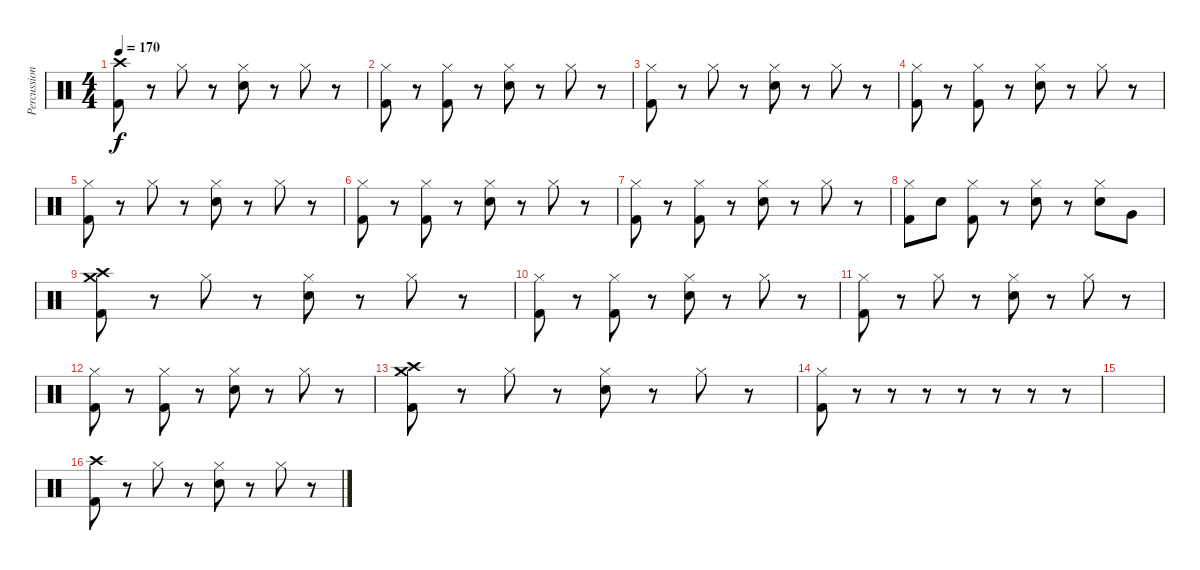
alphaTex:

\track ("Percussion" "Percussion") {instrument percussion}
\staff {score}
\articulation defaults
\ts (4 4)
\tempo 170
\clef neutral
\ks c
("Crash high (hit)" "Kick (hit) 2").8{dy f} r.8 "Hi-Hat (closed)".8 r.8 ("Hi-Hat (closed)" "Electric Snare (hit)").8 r.8 "Hi-Hat (closed)".8 r.8 |
("Hi-Hat (closed)" "Kick (hit) 2").8 r.8 ("Hi-Hat (closed)" "Kick (hit) 2").8 r.8 ("Hi-Hat (closed)" "Electric Snare (hit)").8 r.8 "Hi-Hat (closed)".8 r.8 |
("Hi-Hat (closed)" "Kick (hit) 2").8 r.8 "Hi-Hat (closed)".8 r.8 ("Hi-Hat (closed)" "Electric Snare (hit)").8 r.8 "Hi-Hat (closed)".8 r.8 |
("Hi-Hat (closed)" "Kick (hit) 2").8 r.8 ("Hi-Hat (closed)" "Kick (hit) 2").8 r.8 ("Hi-Hat (closed)" "Electric Snare (hit)").8 r.8 "Hi-Hat (closed)".8 r.8 |
("Hi-Hat (closed)" "Kick (hit) 2").8 r.8 "Hi-Hat (closed)".8 r.8 ("Hi-Hat (closed)" "Electric Snare (hit)").8 r.8 "Hi-Hat (closed)".8 r.8 |
("Hi-Hat (closed)" "Kick (hit) 2").8 r.8 ("Hi-Hat (closed)" "Kick (hit) 2").8 r.8 ("Hi-Hat (closed)" "Electric Snare (hit)").8 r.8 "Hi-Hat (closed)".8 r.8 |
("Hi-Hat (closed)" "Kick (hit) 2").8 r.8 ("Hi-Hat (closed)" "Kick (hit) 2").8 r.8 ("Hi-Hat (closed)" "Electric Snare (hit)").8 r.8 "Hi-Hat (closed)".8 r.8 |
("Hi-Hat (closed)" "Kick (hit) 2").8 "Electric Snare (hit)".8 ("Hi-Hat (closed)" "Kick (hit) 2").8 r.8 ("Hi-Hat (closed)" "Electric Snare (hit)").8 r.8 ("Hi-Hat (closed)" "Electric Snare (hit)").8 "Very Low Tom (hit)".8 |
("Crash high (hit)" "Crash medium (hit)" "Kick (hit) 2").8 r.8 "Hi-Hat (closed)".8 r.8 ("Hi-Hat (closed)" "Electric Snare (hit)").8 r.8 "Hi-Hat (closed)".8 r.8 |
("Hi-Hat (closed)" "Kick (hit) 2").8 r.8 ("Hi-Hat (closed)" "Kick (hit) 2").8 r.8 ("Hi-Hat (closed)" "Electric Snare (hit)").8 r.8 "Hi-Hat (closed)".8 r.8 |
("Hi-Hat (closed)" "Kick (hit) 2").8 r.8 "Hi-Hat (closed)".8 r.8 ("Hi-Hat (closed)" "Electric Snare (hit)").8 r.8 "Hi-Hat (closed)".8 r.8 |
("Hi-Hat (closed)" "Kick (hit) 2").8 r.8 ("Hi-Hat (closed)" "Kick (hit) 2").8 r.8 ("Hi-Hat (closed)" "Electric Snare (hit)").8 r.8 "Hi-Hat (closed)".8 r.8 |
("Crash high (hit)" "Crash medium (hit)" "Kick (hit) 2").8 r.8 "Hi-Hat (closed)".8 r.8 ("Hi-Hat (closed)" "Electric Snare (hit)").8 r.8 "Hi-Hat (closed)".8 r.8 |
("Hi-Hat (closed)" "Kick (hit) 2").8 r.8 r.8 r.8 r.8 r.8 r.8 r.8 |
|
("Crash high (hit)" "Kick (hit) 2").8 r.8 "Hi-Hat (closed)".8 r.8 ("Hi-Hat (closed)" "Electric Snare (hit)").8 r.8 "Hi-Hat (closed)".8 r.8
